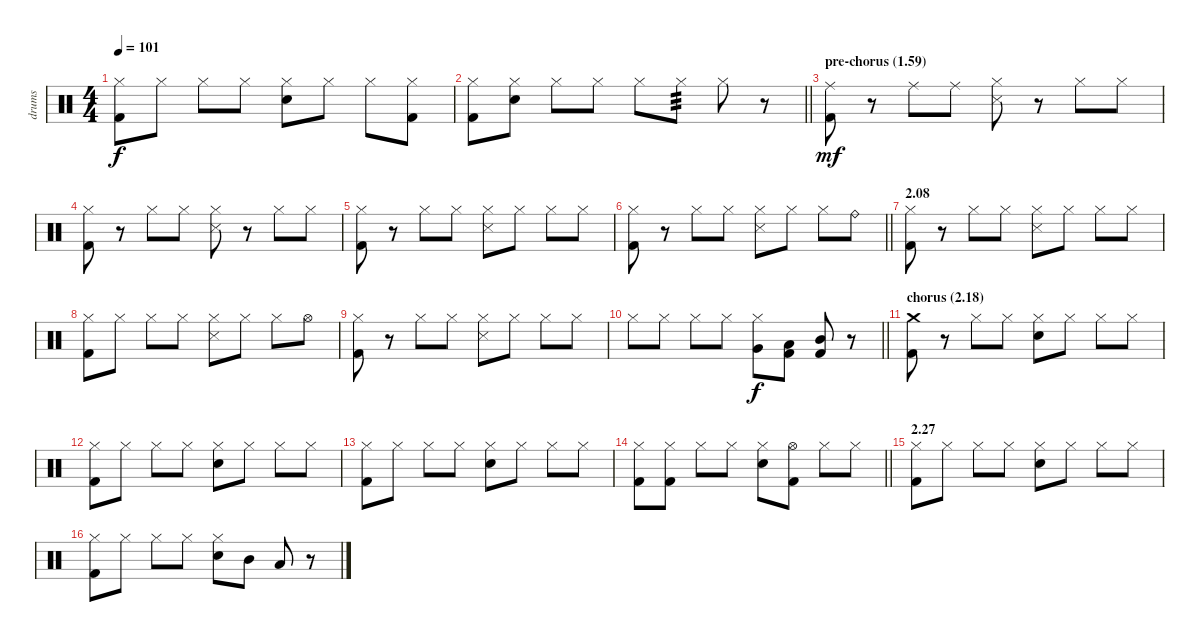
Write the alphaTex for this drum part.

\track ("drums" "drums") {instrument percussion}
\staff {score}
\articulation defaults
\ts (4 4)
\tempo 101
\clef neutral
\ks c
("Hi-Hat (closed)" "Kick (hit) 2").8{dy f} "Hi-Hat (closed)".8 "Hi-Hat (closed)".8 "Hi-Hat (closed)".8 ("Hi-Hat (closed)" "Electric Snare (hit)").8 "Hi-Hat (closed)".8 "Hi-Hat (closed)".8 ("Hi-Hat (closed)" "Kick (hit) 2").8 |
\barLineRight lightlight
("Hi-Hat (closed)" "Kick (hit) 2").8 ("Hi-Hat (closed)" "Electric Snare (hit)").8 "Hi-Hat (closed)".8 "Hi-Hat (closed)".8 "Hi-Hat (closed)".8 "Hi-Hat (closed)".8{tp 3} "Hi-Hat (closed)".8 r.8 |
\section ("" "pre-chorus (1.59)")
("Ride (middle)" "Kick (hit) 2").8{dy mf} r.8 "Ride (middle)".8 "Ride (middle)".8 ("Hi-Hat (closed)" "Snare (side stick) 3").8 r.8 "Hi-Hat (closed)".8 "Hi-Hat (closed)".8 |
("Hi-Hat (closed)" "Kick (hit) 2").8 r.8 "Hi-Hat (closed)".8 "Hi-Hat (closed)".8 ("Hi-Hat (closed)" "Snare (side stick) 3").8 r.8 "Hi-Hat (closed)".8 "Hi-Hat (closed)".8 |
("Hi-Hat (closed)" "Kick (hit) 2").8 r.8 "Hi-Hat (closed)".8 "Hi-Hat (closed)".8 ("Hi-Hat (closed)" "Snare (side stick) 3").8 "Hi-Hat (closed)".8 "Hi-Hat (closed)".8 "Hi-Hat (closed)".8 |
\barLineRight lightlight
("Hi-Hat (closed)" "Kick (hit) 2").8 r.8 "Hi-Hat (closed)".8 "Hi-Hat (closed)".8 ("Hi-Hat (closed)" "Snare (side stick) 3").8 "Hi-Hat (closed)".8 "Hi-Hat (closed)".8 "Ride (bell)".8 |
\section ("" "2.08")
("Hi-Hat (closed)" "Kick (hit) 2").8 r.8 "Hi-Hat (closed)".8 "Hi-Hat (closed)".8 ("Hi-Hat (closed)" "Snare (side stick) 3").8 "Hi-Hat (closed)".8 "Hi-Hat (closed)".8 "Hi-Hat (closed)".8 |
("Hi-Hat (closed)" "Kick (hit) 2").8 "Hi-Hat (closed)".8 "Hi-Hat (closed)".8 "Hi-Hat (closed)".8 ("Hi-Hat (closed)" "Snare (side stick) 3").8 "Hi-Hat (closed)".8 "Hi-Hat (closed)".8 "Hi-Hat (open)".8 |
("Hi-Hat (closed)" "Kick (hit) 2").8 r.8 "Hi-Hat (closed)".8 "Hi-Hat (closed)".8 ("Hi-Hat (closed)" "Snare (side stick) 3").8 "Hi-Hat (closed)".8 "Hi-Hat (closed)".8 "Hi-Hat (closed)".8 |
\barLineRight lightlight "Hi-Hat (closed)".8 "Hi-Hat (closed)".8 "Hi-Hat (closed)".8 "Hi-Hat (closed)".8
("Hi-Hat (closed)" "Very Low Tom (hit)").8{dy f} ("Low Tom (hit)" "Kick (hit) 2").8 ("Mid Tom (hit)" "Kick (hit) 2").8 r.8 |
\section ("" "chorus (2.18)")
("Crash medium (hit)" "Kick (hit) 2").8 r.8 "Hi-Hat (closed)".8 "Hi-Hat (closed)".8 ("Hi-Hat (closed)" "Electric Snare (hit)").8 "Hi-Hat (closed)".8 "Hi-Hat (closed)".8 "Hi-Hat (closed)".8 |
("Hi-Hat (closed)" "Kick (hit) 2").8 "Hi-Hat (closed)".8 "Hi-Hat (closed)".8 "Hi-Hat (closed)".8 ("Hi-Hat (closed)" "Electric Snare (hit)").8 "Hi-Hat (closed)".8 "Hi-Hat (closed)".8 "Hi-Hat (closed)".8 |
("Hi-Hat (closed)" "Kick (hit) 2").8 "Hi-Hat (closed)".8 "Hi-Hat (closed)".8 "Hi-Hat (closed)".8 ("Hi-Hat (closed)" "Electric Snare (hit)").8 "Hi-Hat (closed)".8 "Hi-Hat (closed)".8 "Hi-Hat (closed)".8 |
\barLineRight lightlight
("Hi-Hat (closed)" "Kick (hit) 2").8 ("Hi-Hat (closed)" "Kick (hit) 2").8 "Hi-Hat (closed)".8 "Hi-Hat (closed)".8 ("Hi-Hat (closed)" "Electric Snare (hit)").8 ("Hi-Hat (open)" "Kick (hit) 2").8 "Hi-Hat (closed)".8 "Hi-Hat (closed)".8 |
\section ("" "2.27")
("Hi-Hat (closed)" "Kick (hit) 2").8 "Hi-Hat (closed)".8 "Hi-Hat (closed)".8 "Hi-Hat (closed)".8 ("Hi-Hat (closed)" "Electric Snare (hit)").8 "Hi-Hat (closed)".8 "Hi-Hat (closed)".8 "Hi-Hat (closed)".8 |
("Hi-Hat (closed)" "Kick (hit) 2").8 "Hi-Hat (closed)".8 "Hi-Hat (closed)".8 "Hi-Hat (closed)".8 ("Hi-Hat (closed)" "Electric Snare (hit)").8 "Mid Tom (hit)".8 "Low Tom (hit)".8 r.8
